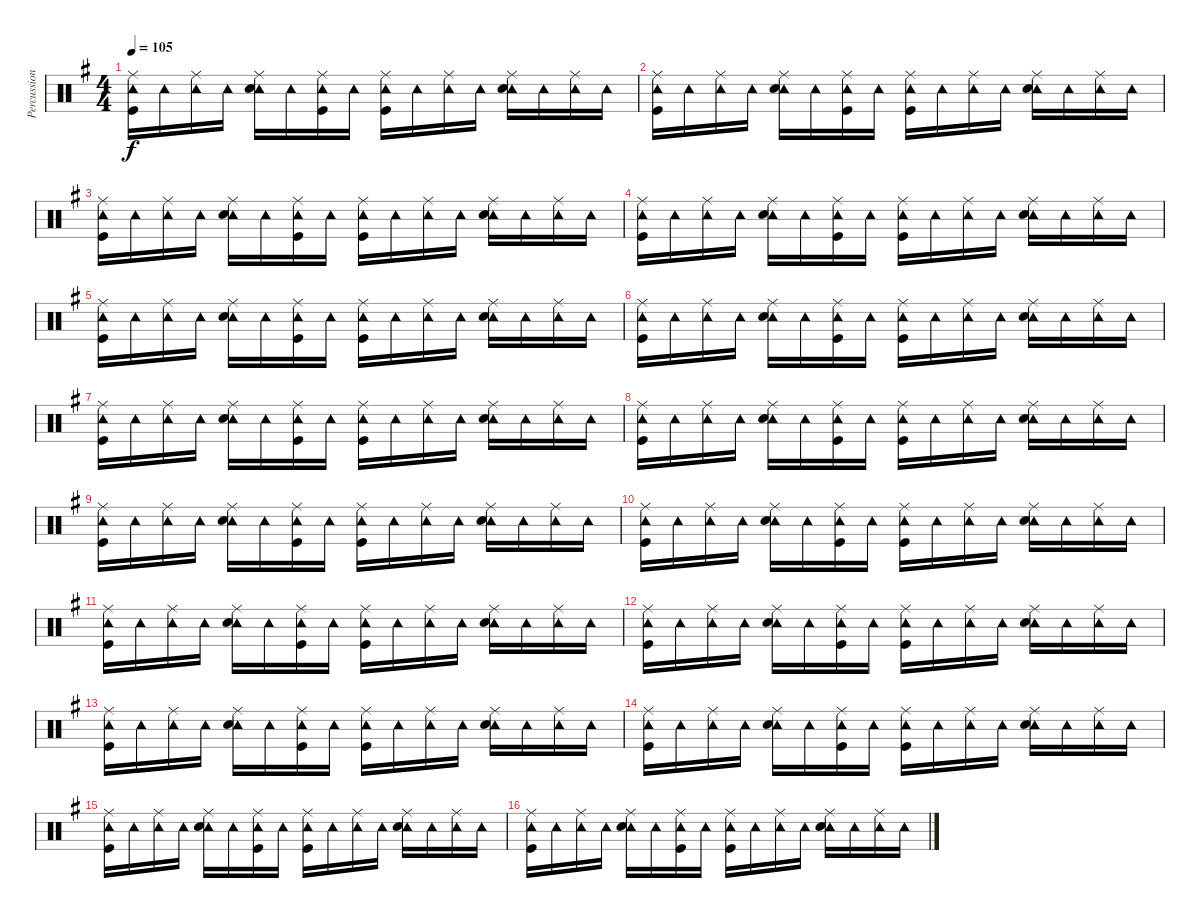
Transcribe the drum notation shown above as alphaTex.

\track ("Percussion" "Percussion") {instrument percussion}
\staff {score}
\articulation defaults
\ts (4 4)
\tempo 105
\clef neutral
\ks g
("Ride (middle)" "Tambourine (hit)" "Kick (hit)").16{dy f} "Tambourine (hit)".16 ("Ride (middle)" "Tambourine (hit)").16 "Tambourine (hit)".16 ("Ride (middle)" "Tambourine (hit)" "Snare (hit) 2").16 "Tambourine (hit)".16 ("Ride (middle)" "Tambourine (hit)" "Kick (hit)").16 "Tambourine (hit)".16 ("Ride (middle)" "Tambourine (hit)" "Kick (hit)").16 "Tambourine (hit)".16 ("Ride (middle)" "Tambourine (hit)").16 "Tambourine (hit)".16 ("Ride (middle)" "Tambourine (hit)" "Snare (hit) 2").16 "Tambourine (hit)".16 ("Ride (middle)" "Tambourine (hit)").16 "Tambourine (hit)".16 |
("Ride (middle)" "Tambourine (hit)" "Kick (hit)").16 "Tambourine (hit)".16 ("Ride (middle)" "Tambourine (hit)").16 "Tambourine (hit)".16 ("Ride (middle)" "Tambourine (hit)" "Snare (hit) 2").16 "Tambourine (hit)".16 ("Ride (middle)" "Tambourine (hit)" "Kick (hit)").16 "Tambourine (hit)".16 ("Ride (middle)" "Tambourine (hit)" "Kick (hit)").16 "Tambourine (hit)".16 ("Ride (middle)" "Tambourine (hit)").16 "Tambourine (hit)".16 ("Ride (middle)" "Tambourine (hit)" "Snare (hit) 2").16 "Tambourine (hit)".16 ("Ride (middle)" "Tambourine (hit)").16 "Tambourine (hit)".16 |
("Ride (middle)" "Tambourine (hit)" "Kick (hit)").16 "Tambourine (hit)".16 ("Ride (middle)" "Tambourine (hit)").16 "Tambourine (hit)".16 ("Ride (middle)" "Tambourine (hit)" "Snare (hit) 2").16 "Tambourine (hit)".16 ("Ride (middle)" "Tambourine (hit)" "Kick (hit)").16 "Tambourine (hit)".16 ("Ride (middle)" "Tambourine (hit)" "Kick (hit)").16 "Tambourine (hit)".16 ("Ride (middle)" "Tambourine (hit)").16 "Tambourine (hit)".16 ("Ride (middle)" "Tambourine (hit)" "Snare (hit) 2").16 "Tambourine (hit)".16 ("Ride (middle)" "Tambourine (hit)").16 "Tambourine (hit)".16 |
("Ride (middle)" "Tambourine (hit)" "Kick (hit)").16 "Tambourine (hit)".16 ("Ride (middle)" "Tambourine (hit)").16 "Tambourine (hit)".16 ("Ride (middle)" "Tambourine (hit)" "Snare (hit) 2").16 "Tambourine (hit)".16 ("Ride (middle)" "Tambourine (hit)" "Kick (hit)").16 "Tambourine (hit)".16 ("Ride (middle)" "Tambourine (hit)" "Kick (hit)").16 "Tambourine (hit)".16 ("Ride (middle)" "Tambourine (hit)").16 "Tambourine (hit)".16 ("Ride (middle)" "Tambourine (hit)" "Snare (hit) 2").16 "Tambourine (hit)".16 ("Ride (middle)" "Tambourine (hit)").16 "Tambourine (hit)".16 |
("Ride (middle)" "Tambourine (hit)" "Kick (hit)").16 "Tambourine (hit)".16 ("Ride (middle)" "Tambourine (hit)").16 "Tambourine (hit)".16 ("Ride (middle)" "Tambourine (hit)" "Snare (hit) 2").16 "Tambourine (hit)".16 ("Ride (middle)" "Tambourine (hit)" "Kick (hit)").16 "Tambourine (hit)".16 ("Ride (middle)" "Tambourine (hit)" "Kick (hit)").16 "Tambourine (hit)".16 ("Ride (middle)" "Tambourine (hit)").16 "Tambourine (hit)".16 ("Ride (middle)" "Tambourine (hit)" "Snare (hit) 2").16 "Tambourine (hit)".16 ("Ride (middle)" "Tambourine (hit)").16 "Tambourine (hit)".16 |
("Ride (middle)" "Tambourine (hit)" "Kick (hit)").16 "Tambourine (hit)".16 ("Ride (middle)" "Tambourine (hit)").16 "Tambourine (hit)".16 ("Ride (middle)" "Tambourine (hit)" "Snare (hit) 2").16 "Tambourine (hit)".16 ("Ride (middle)" "Tambourine (hit)" "Kick (hit)").16 "Tambourine (hit)".16 ("Ride (middle)" "Tambourine (hit)" "Kick (hit)").16 "Tambourine (hit)".16 ("Ride (middle)" "Tambourine (hit)").16 "Tambourine (hit)".16 ("Ride (middle)" "Tambourine (hit)" "Snare (hit) 2").16 "Tambourine (hit)".16 ("Ride (middle)" "Tambourine (hit)").16 "Tambourine (hit)".16 |
("Ride (middle)" "Tambourine (hit)" "Kick (hit)").16 "Tambourine (hit)".16 ("Ride (middle)" "Tambourine (hit)").16 "Tambourine (hit)".16 ("Ride (middle)" "Tambourine (hit)" "Snare (hit) 2").16 "Tambourine (hit)".16 ("Ride (middle)" "Tambourine (hit)" "Kick (hit)").16 "Tambourine (hit)".16 ("Ride (middle)" "Tambourine (hit)" "Kick (hit)").16 "Tambourine (hit)".16 ("Ride (middle)" "Tambourine (hit)").16 "Tambourine (hit)".16 ("Ride (middle)" "Tambourine (hit)" "Snare (hit) 2").16 "Tambourine (hit)".16 ("Ride (middle)" "Tambourine (hit)").16 "Tambourine (hit)".16 |
("Ride (middle)" "Tambourine (hit)" "Kick (hit)").16 "Tambourine (hit)".16 ("Ride (middle)" "Tambourine (hit)").16 "Tambourine (hit)".16 ("Ride (middle)" "Tambourine (hit)" "Snare (hit) 2").16 "Tambourine (hit)".16 ("Ride (middle)" "Tambourine (hit)" "Kick (hit)").16 "Tambourine (hit)".16 ("Ride (middle)" "Tambourine (hit)" "Kick (hit)").16 "Tambourine (hit)".16 ("Ride (middle)" "Tambourine (hit)").16 "Tambourine (hit)".16 ("Ride (middle)" "Tambourine (hit)" "Snare (hit) 2").16 "Tambourine (hit)".16 ("Ride (middle)" "Tambourine (hit)").16 "Tambourine (hit)".16 |
("Ride (middle)" "Tambourine (hit)" "Kick (hit)").16 "Tambourine (hit)".16 ("Ride (middle)" "Tambourine (hit)").16 "Tambourine (hit)".16 ("Ride (middle)" "Tambourine (hit)" "Snare (hit) 2").16 "Tambourine (hit)".16 ("Ride (middle)" "Tambourine (hit)" "Kick (hit)").16 "Tambourine (hit)".16 ("Ride (middle)" "Tambourine (hit)" "Kick (hit)").16 "Tambourine (hit)".16 ("Ride (middle)" "Tambourine (hit)").16 "Tambourine (hit)".16 ("Ride (middle)" "Tambourine (hit)" "Snare (hit) 2").16 "Tambourine (hit)".16 ("Ride (middle)" "Tambourine (hit)").16 "Tambourine (hit)".16 |
("Ride (middle)" "Tambourine (hit)" "Kick (hit)").16 "Tambourine (hit)".16 ("Ride (middle)" "Tambourine (hit)").16 "Tambourine (hit)".16 ("Ride (middle)" "Tambourine (hit)" "Snare (hit) 2").16 "Tambourine (hit)".16 ("Ride (middle)" "Tambourine (hit)" "Kick (hit)").16 "Tambourine (hit)".16 ("Ride (middle)" "Tambourine (hit)" "Kick (hit)").16 "Tambourine (hit)".16 ("Ride (middle)" "Tambourine (hit)").16 "Tambourine (hit)".16 ("Ride (middle)" "Tambourine (hit)" "Snare (hit) 2").16 "Tambourine (hit)".16 ("Ride (middle)" "Tambourine (hit)").16 "Tambourine (hit)".16 |
("Ride (middle)" "Tambourine (hit)" "Kick (hit)").16 "Tambourine (hit)".16 ("Ride (middle)" "Tambourine (hit)").16 "Tambourine (hit)".16 ("Ride (middle)" "Tambourine (hit)" "Snare (hit) 2").16 "Tambourine (hit)".16 ("Ride (middle)" "Tambourine (hit)" "Kick (hit)").16 "Tambourine (hit)".16 ("Ride (middle)" "Tambourine (hit)" "Kick (hit)").16 "Tambourine (hit)".16 ("Ride (middle)" "Tambourine (hit)").16 "Tambourine (hit)".16 ("Ride (middle)" "Tambourine (hit)" "Snare (hit) 2").16 "Tambourine (hit)".16 ("Ride (middle)" "Tambourine (hit)").16 "Tambourine (hit)".16 |
("Ride (middle)" "Tambourine (hit)" "Kick (hit)").16 "Tambourine (hit)".16 ("Ride (middle)" "Tambourine (hit)").16 "Tambourine (hit)".16 ("Ride (middle)" "Tambourine (hit)" "Snare (hit) 2").16 "Tambourine (hit)".16 ("Ride (middle)" "Tambourine (hit)" "Kick (hit)").16 "Tambourine (hit)".16 ("Ride (middle)" "Tambourine (hit)" "Kick (hit)").16 "Tambourine (hit)".16 ("Ride (middle)" "Tambourine (hit)").16 "Tambourine (hit)".16 ("Ride (middle)" "Tambourine (hit)" "Snare (hit) 2").16 "Tambourine (hit)".16 ("Ride (middle)" "Tambourine (hit)").16 "Tambourine (hit)".16 |
("Ride (middle)" "Tambourine (hit)" "Kick (hit)").16 "Tambourine (hit)".16 ("Ride (middle)" "Tambourine (hit)").16 "Tambourine (hit)".16 ("Ride (middle)" "Tambourine (hit)" "Snare (hit) 2").16 "Tambourine (hit)".16 ("Ride (middle)" "Tambourine (hit)" "Kick (hit)").16 "Tambourine (hit)".16 ("Ride (middle)" "Tambourine (hit)" "Kick (hit)").16 "Tambourine (hit)".16 ("Ride (middle)" "Tambourine (hit)").16 "Tambourine (hit)".16 ("Ride (middle)" "Tambourine (hit)" "Snare (hit) 2").16 "Tambourine (hit)".16 ("Ride (middle)" "Tambourine (hit)").16 "Tambourine (hit)".16 |
("Ride (middle)" "Tambourine (hit)" "Kick (hit)").16 "Tambourine (hit)".16 ("Ride (middle)" "Tambourine (hit)").16 "Tambourine (hit)".16 ("Ride (middle)" "Tambourine (hit)" "Snare (hit) 2").16 "Tambourine (hit)".16 ("Ride (middle)" "Tambourine (hit)" "Kick (hit)").16 "Tambourine (hit)".16 ("Ride (middle)" "Tambourine (hit)" "Kick (hit)").16 "Tambourine (hit)".16 ("Ride (middle)" "Tambourine (hit)").16 "Tambourine (hit)".16 ("Ride (middle)" "Tambourine (hit)" "Snare (hit) 2").16 "Tambourine (hit)".16 ("Ride (middle)" "Tambourine (hit)").16 "Tambourine (hit)".16 |
("Ride (middle)" "Tambourine (hit)" "Kick (hit)").16 "Tambourine (hit)".16 ("Ride (middle)" "Tambourine (hit)").16 "Tambourine (hit)".16 ("Ride (middle)" "Tambourine (hit)" "Snare (hit) 2").16 "Tambourine (hit)".16 ("Ride (middle)" "Tambourine (hit)" "Kick (hit)").16 "Tambourine (hit)".16 ("Ride (middle)" "Tambourine (hit)" "Kick (hit)").16 "Tambourine (hit)".16 ("Ride (middle)" "Tambourine (hit)").16 "Tambourine (hit)".16 ("Ride (middle)" "Tambourine (hit)" "Snare (hit) 2").16 "Tambourine (hit)".16 ("Ride (middle)" "Tambourine (hit)").16 "Tambourine (hit)".16 |
("Ride (middle)" "Tambourine (hit)" "Kick (hit)").16 "Tambourine (hit)".16 ("Ride (middle)" "Tambourine (hit)").16 "Tambourine (hit)".16 ("Ride (middle)" "Tambourine (hit)" "Snare (hit) 2").16 "Tambourine (hit)".16 ("Ride (middle)" "Tambourine (hit)" "Kick (hit)").16 "Tambourine (hit)".16 ("Ride (middle)" "Tambourine (hit)" "Kick (hit)").16 "Tambourine (hit)".16 ("Ride (middle)" "Tambourine (hit)").16 "Tambourine (hit)".16 ("Ride (middle)" "Tambourine (hit)" "Snare (hit) 2").16 "Tambourine (hit)".16 ("Ride (middle)" "Tambourine (hit)").16 "Tambourine (hit)".16
